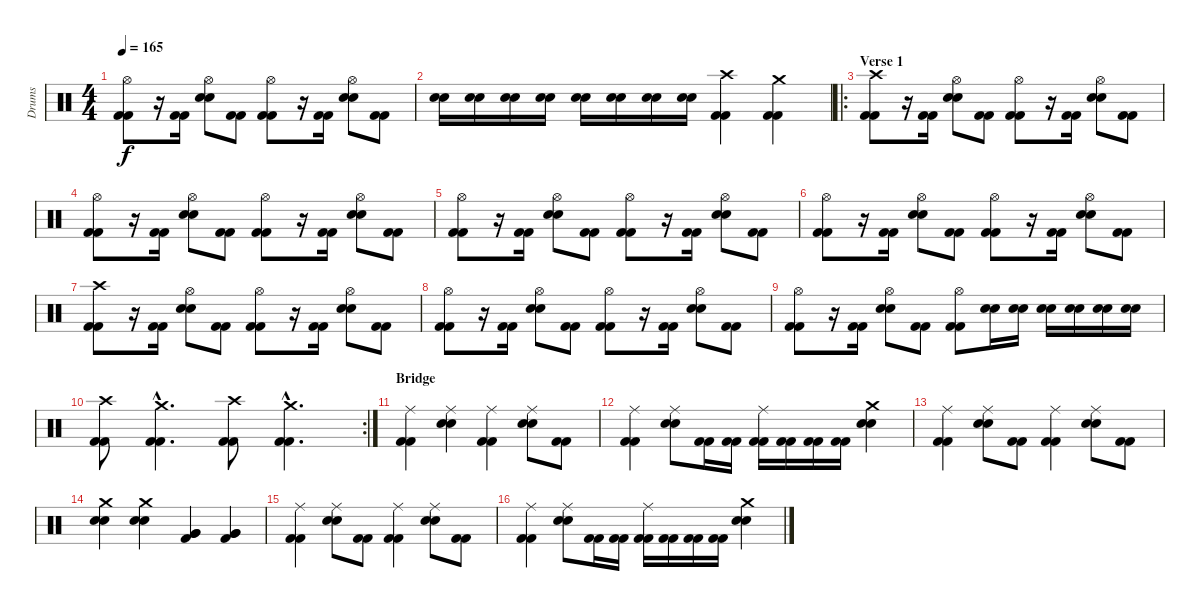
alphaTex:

\track ("Drums" "Drums") {instrument percussion}
\staff {score}
\articulation defaults
\ts (4 4)
\tempo 165
\clef neutral
\ks c
("Hi-Hat (open)" "Kick (hit) 2" "Kick (hit) 2").8{dy f} r.16 ("Kick (hit) 2" "Kick (hit) 2").16 ("Hi-Hat (open)" "Snare (hit) 2" "Snare (hit) 2").8 ("Kick (hit) 2" "Kick (hit) 2").8 ("Hi-Hat (open)" "Kick (hit) 2" "Kick (hit) 2").8 r.16 ("Kick (hit) 2" "Kick (hit) 2").16 ("Hi-Hat (open)" "Snare (hit) 2" "Snare (hit) 2").8 ("Kick (hit) 2" "Kick (hit) 2").8 |
("Snare (hit) 2" "Snare (hit) 2").16 ("Snare (hit) 2" "Snare (hit) 2").16 ("Snare (hit) 2" "Snare (hit) 2").16 ("Snare (hit) 2" "Snare (hit) 2").16 ("Snare (hit) 2" "Snare (hit) 2").16 ("Snare (hit) 2" "Snare (hit) 2").16 ("Snare (hit) 2" "Snare (hit) 2").16 ("Snare (hit) 2" "Snare (hit) 2").16 ("Crash high (hit)" "Kick (hit) 2" "Kick (hit) 2").4 ("Crash medium (hit)" "Kick (hit) 2" "Kick (hit) 2").4 |
\ro
\section ("" "Verse 1")
("Crash high (hit)" "Kick (hit) 2" "Kick (hit) 2").8 r.16 ("Kick (hit) 2" "Kick (hit) 2").16 ("Hi-Hat (open)" "Snare (hit) 2" "Snare (hit) 2").8 ("Kick (hit) 2" "Kick (hit) 2").8 ("Hi-Hat (open)" "Kick (hit) 2" "Kick (hit) 2").8 r.16 ("Kick (hit) 2" "Kick (hit) 2").16 ("Hi-Hat (open)" "Snare (hit) 2" "Snare (hit) 2").8 ("Kick (hit) 2" "Kick (hit) 2").8 |
("Hi-Hat (open)" "Kick (hit) 2" "Kick (hit) 2").8 r.16 ("Kick (hit) 2" "Kick (hit) 2").16 ("Hi-Hat (open)" "Snare (hit) 2" "Snare (hit) 2").8 ("Kick (hit) 2" "Kick (hit) 2").8 ("Hi-Hat (open)" "Kick (hit) 2" "Kick (hit) 2").8 r.16 ("Kick (hit) 2" "Kick (hit) 2").16 ("Hi-Hat (open)" "Snare (hit) 2" "Snare (hit) 2").8 ("Kick (hit) 2" "Kick (hit) 2").8 |
("Hi-Hat (open)" "Kick (hit) 2" "Kick (hit) 2").8 r.16 ("Kick (hit) 2" "Kick (hit) 2").16 ("Hi-Hat (open)" "Snare (hit) 2" "Snare (hit) 2").8 ("Kick (hit) 2" "Kick (hit) 2").8 ("Hi-Hat (open)" "Kick (hit) 2" "Kick (hit) 2").8 r.16 ("Kick (hit) 2" "Kick (hit) 2").16 ("Hi-Hat (open)" "Snare (hit) 2" "Snare (hit) 2").8 ("Kick (hit) 2" "Kick (hit) 2").8 |
("Hi-Hat (open)" "Kick (hit) 2" "Kick (hit) 2").8 r.16 ("Kick (hit) 2" "Kick (hit) 2").16 ("Hi-Hat (open)" "Snare (hit) 2" "Snare (hit) 2").8 ("Kick (hit) 2" "Kick (hit) 2").8 ("Hi-Hat (open)" "Kick (hit) 2" "Kick (hit) 2").8 r.16 ("Kick (hit) 2" "Kick (hit) 2").16 ("Hi-Hat (open)" "Snare (hit) 2" "Snare (hit) 2").8 ("Kick (hit) 2" "Kick (hit) 2").8 |
("Crash high (hit)" "Kick (hit) 2" "Kick (hit) 2").8 r.16 ("Kick (hit) 2" "Kick (hit) 2").16 ("Hi-Hat (open)" "Snare (hit) 2" "Snare (hit) 2").8 ("Kick (hit) 2" "Kick (hit) 2").8 ("Hi-Hat (open)" "Kick (hit) 2" "Kick (hit) 2").8 r.16 ("Kick (hit) 2" "Kick (hit) 2").16 ("Hi-Hat (open)" "Snare (hit) 2" "Snare (hit) 2").8 ("Kick (hit) 2" "Kick (hit) 2").8 |
("Hi-Hat (open)" "Kick (hit) 2" "Kick (hit) 2").8 r.16 ("Kick (hit) 2" "Kick (hit) 2").16 ("Hi-Hat (open)" "Snare (hit) 2" "Snare (hit) 2").8 ("Kick (hit) 2" "Kick (hit) 2").8 ("Hi-Hat (open)" "Kick (hit) 2" "Kick (hit) 2").8 r.16 ("Kick (hit) 2" "Kick (hit) 2").16 ("Hi-Hat (open)" "Snare (hit) 2" "Snare (hit) 2").8 ("Kick (hit) 2" "Kick (hit) 2").8 |
("Hi-Hat (open)" "Kick (hit) 2" "Kick (hit) 2").8 r.16 ("Kick (hit) 2" "Kick (hit) 2").16 ("Hi-Hat (open)" "Snare (hit) 2" "Snare (hit) 2").8 ("Kick (hit) 2" "Kick (hit) 2").8 ("Hi-Hat (open)" "Kick (hit) 2" "Kick (hit) 2").8 ("Snare (hit) 2" "Snare (hit) 2").16 ("Snare (hit) 2" "Snare (hit) 2").16 ("Snare (hit) 2" "Snare (hit) 2").16 ("Snare (hit) 2" "Snare (hit) 2").16 ("Snare (hit) 2" "Snare (hit) 2").16 ("Snare (hit) 2" "Snare (hit) 2").16 |
\rc 2
("Crash high (hit)" "Kick (hit) 2" "Kick (hit) 2").8 ("Crash medium (hit)"{hac} "Kick (hit) 2"{hac} "Kick (hit) 2"{hac}).4{d} ("Crash high (hit)" "Kick (hit) 2" "Kick (hit) 2").8 ("Crash medium (hit)"{hac} "Kick (hit) 2"{hac} "Kick (hit) 2"{hac}).4{d} |
\section ("" "Bridge")
("Ride (middle)" "Kick (hit) 2" "Kick (hit) 2").4 ("Ride (middle)" "Snare (hit) 2" "Snare (hit) 2").4 ("Ride (middle)" "Kick (hit) 2" "Kick (hit) 2").4 ("Ride (middle)" "Snare (hit) 2" "Snare (hit) 2").8 ("Kick (hit) 2" "Kick (hit) 2").8 |
("Ride (middle)" "Kick (hit) 2" "Kick (hit) 2").4 ("Ride (middle)" "Snare (hit) 2" "Snare (hit) 2").8 ("Kick (hit) 2" "Kick (hit) 2").16 ("Kick (hit) 2" "Kick (hit) 2").16 ("Ride (middle)" "Kick (hit) 2" "Kick (hit) 2").16 ("Kick (hit) 2" "Kick (hit) 2").16 ("Kick (hit) 2" "Kick (hit) 2").16 ("Kick (hit) 2" "Kick (hit) 2").16 ("Crash medium (hit)" "Snare (hit) 2" "Snare (hit) 2").4 |
("Ride (middle)" "Kick (hit) 2" "Kick (hit) 2").4 ("Ride (middle)" "Snare (hit) 2" "Snare (hit) 2").8 ("Kick (hit) 2" "Kick (hit) 2").8 ("Ride (middle)" "Kick (hit) 2" "Kick (hit) 2").4 ("Ride (middle)" "Snare (hit) 2" "Snare (hit) 2").8 ("Kick (hit) 2" "Kick (hit) 2").8 |
("Crash medium (hit)" "Snare (hit) 2" "Snare (hit) 2").4 ("Crash medium (hit)" "Snare (hit) 2" "Snare (hit) 2").4 ("Very Low Tom (hit)" "Very Low Tom (hit)" "Kick (hit) 2").4 ("Very Low Tom (hit)" "Very Low Tom (hit)" "Kick (hit) 2").4 |
("Ride (middle)" "Kick (hit) 2" "Kick (hit) 2").4 ("Ride (middle)" "Snare (hit) 2" "Snare (hit) 2").8 ("Kick (hit) 2" "Kick (hit) 2").8 ("Ride (middle)" "Kick (hit) 2" "Kick (hit) 2").4 ("Ride (middle)" "Snare (hit) 2" "Snare (hit) 2").8 ("Kick (hit) 2" "Kick (hit) 2").8 |
("Ride (middle)" "Kick (hit) 2" "Kick (hit) 2").4 ("Ride (middle)" "Snare (hit) 2" "Snare (hit) 2").8 ("Kick (hit) 2" "Kick (hit) 2").16 ("Kick (hit) 2" "Kick (hit) 2").16 ("Ride (middle)" "Kick (hit) 2" "Kick (hit) 2").16 ("Kick (hit) 2" "Kick (hit) 2").16 ("Kick (hit) 2" "Kick (hit) 2").16 ("Kick (hit) 2" "Kick (hit) 2").16 ("Crash medium (hit)" "Snare (hit) 2" "Snare (hit) 2").4
